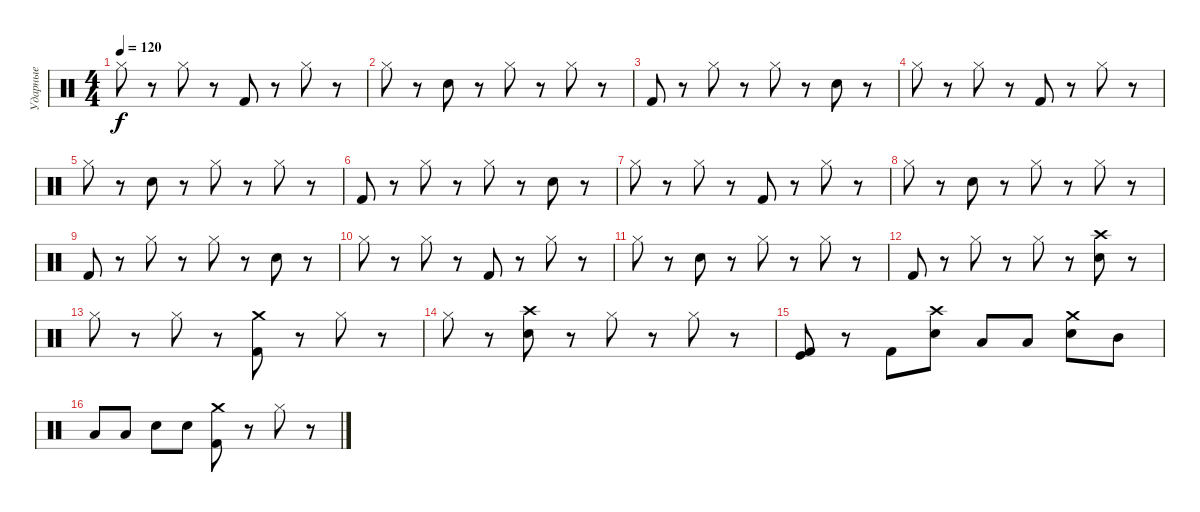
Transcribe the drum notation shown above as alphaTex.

\track ("Ударные" "Ударные") {instrument percussion}
\staff {score}
\articulation defaults
\ts (4 4)
\tempo 120
\clef neutral
\ks c "Hi-Hat (closed)".8{dy f}
r.8 "Hi-Hat (closed)".8 r.8 "Kick (hit) 2".8 r.8 "Hi-Hat (closed)".8 r.8 |
"Hi-Hat (closed)".8 r.8 "Snare (hit) 2".8 r.8 "Hi-Hat (closed)".8 r.8 "Hi-Hat (closed)".8 r.8 |
"Kick (hit) 2".8 r.8 "Hi-Hat (closed)".8 r.8 "Hi-Hat (closed)".8 r.8 "Snare (hit) 2".8 r.8 |
"Hi-Hat (closed)".8 r.8 "Hi-Hat (closed)".8 r.8 "Kick (hit) 2".8 r.8 "Hi-Hat (closed)".8 r.8 |
"Hi-Hat (closed)".8 r.8 "Snare (hit) 2".8 r.8 "Hi-Hat (closed)".8 r.8 "Hi-Hat (closed)".8 r.8 |
"Kick (hit) 2".8 r.8 "Hi-Hat (closed)".8 r.8 "Hi-Hat (closed)".8 r.8 "Snare (hit) 2".8 r.8 |
"Hi-Hat (closed)".8 r.8 "Hi-Hat (closed)".8 r.8 "Kick (hit) 2".8 r.8 "Hi-Hat (closed)".8 r.8 |
"Hi-Hat (closed)".8 r.8 "Snare (hit) 2".8 r.8 "Hi-Hat (closed)".8 r.8 "Hi-Hat (closed)".8 r.8 |
"Kick (hit) 2".8 r.8 "Hi-Hat (closed)".8 r.8 "Hi-Hat (closed)".8 r.8 "Snare (hit) 2".8 r.8 |
"Hi-Hat (closed)".8 r.8 "Hi-Hat (closed)".8 r.8 "Kick (hit) 2".8 r.8 "Hi-Hat (closed)".8 r.8 |
"Hi-Hat (closed)".8 r.8 "Snare (hit) 2".8 r.8 "Hi-Hat (closed)".8 r.8 "Hi-Hat (closed)".8 r.8 |
"Kick (hit) 2".8 r.8 "Hi-Hat (closed)".8 r.8 "Hi-Hat (closed)".8 r.8 ("Crash high (hit)" "Snare (hit) 2").8 r.8 |
"Hi-Hat (closed)".8 r.8 "Hi-Hat (closed)".8 r.8 ("Crash medium (hit)" "Kick (hit) 2").8 r.8 "Hi-Hat (closed)".8 r.8 |
"Hi-Hat (closed)".8 r.8 ("Crash high (hit)" "Snare (hit) 2").8 r.8 "Hi-Hat (closed)".8 r.8 "Hi-Hat (closed)".8 r.8 |
("Kick (hit)" "Kick (hit) 2").8 r.8 "Kick (hit) 2".8 ("Crash high (hit)" "Snare (hit) 2").8 "Low Tom (hit)".8 "Low Tom (hit)".8 ("Crash medium (hit)" "Snare (hit) 2").8 "Mid Tom (hit)".8 |
"Low Tom (hit)".8 "Low Tom (hit)".8 "Snare (hit) 2".8 "Snare (hit) 2".8 ("Crash medium (hit)" "Kick (hit) 2").8 r.8 "Hi-Hat (closed)".8 r.8
